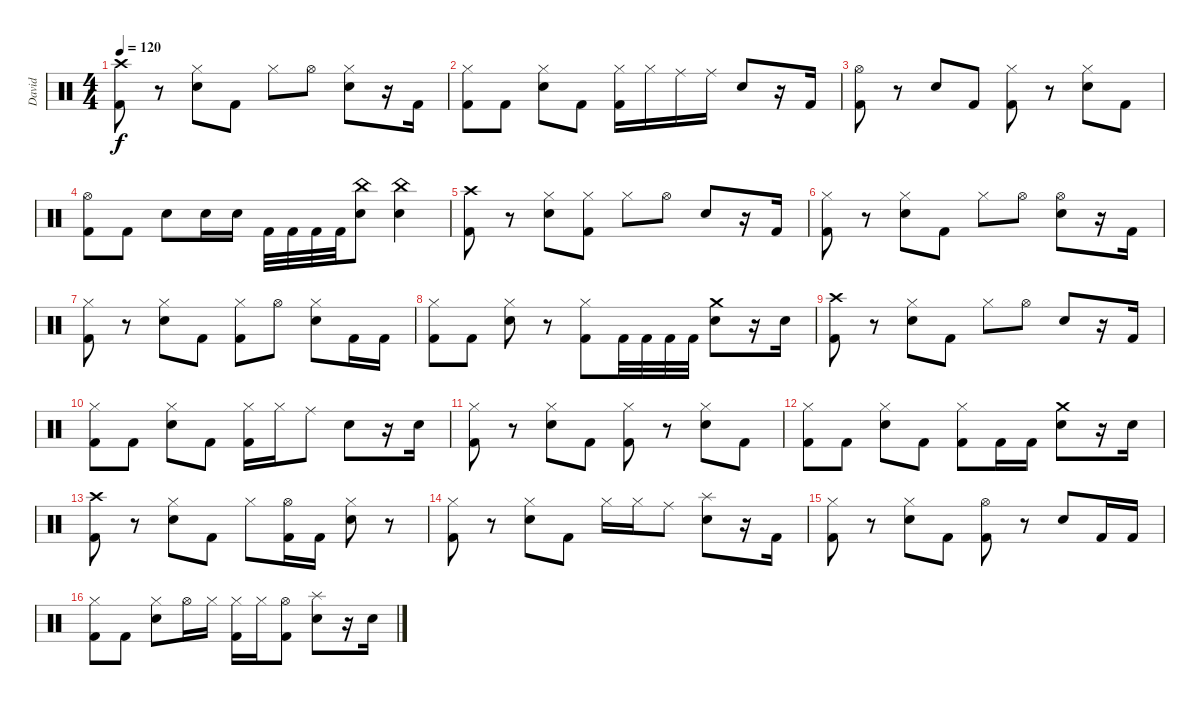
\track ("David" "David") {instrument percussion}
\staff {score}
\articulation defaults
\ts (4 4)
\tempo 120
\clef neutral
\ks c
("Crash high (hit)" "Kick (hit) 2").8{dy f} r.8 ("Hi-Hat (closed)" "Electric Snare (hit)").8 "Kick (hit) 2".8 "Hi-Hat (closed)".8 "Hi-Hat (open)".8 ("Hi-Hat (closed)" "Electric Snare (hit)").8 r.16 "Kick (hit) 2".16 |
("Hi-Hat (closed)" "Kick (hit) 2").8 "Kick (hit) 2".8 ("Hi-Hat (closed)" "Electric Snare (hit)").8 "Kick (hit) 2".8 ("Hi-Hat (closed)" "Kick (hit) 2").16 "Hi-Hat (closed)".16 "Ride (middle)".16 "Ride (middle)".16 "Electric Snare (hit)".8 r.16 "Kick (hit) 2".16 |
("Hi-Hat (open)" "Kick (hit) 2").8 r.8 "Electric Snare (hit)".8 "Kick (hit) 2".8 ("Hi-Hat (closed)" "Kick (hit) 2").8 r.8 ("Hi-Hat (closed)" "Electric Snare (hit)").8 "Kick (hit) 2".8 |
("Hi-Hat (open)" "Kick (hit) 2").8 "Kick (hit) 2".8 "Electric Snare (hit)".8 "Electric Snare (hit)".16 "Electric Snare (hit)".16 "Kick (hit) 2".32 "Kick (hit) 2".32 "Kick (hit) 2".32 "Kick (hit) 2".32 ("China (hit)" "Electric Snare (hit)").8 ("China (hit)" "Electric Snare (hit)").4 |
("Crash high (hit)" "Kick (hit) 2").8 r.8 ("Hi-Hat (closed)" "Electric Snare (hit)").8 ("Hi-Hat (closed)" "Kick (hit) 2").8 "Hi-Hat (closed)".8 "Hi-Hat (open)".8 "Electric Snare (hit)".8 r.16 "Kick (hit) 2".16 |
("Hi-Hat (closed)" "Kick (hit) 2").8 r.8 ("Hi-Hat (closed)" "Electric Snare (hit)").8 "Kick (hit) 2".8 "Hi-Hat (closed)".8 "Hi-Hat (open)".8 ("Hi-Hat (open)" "Electric Snare (hit)").8 r.16 "Kick (hit) 2".16 |
("Hi-Hat (closed)" "Kick (hit) 2").8 r.8 ("Hi-Hat (closed)" "Electric Snare (hit)").8 "Kick (hit) 2".8 ("Hi-Hat (closed)" "Kick (hit) 2").8 "Hi-Hat (open)".8 ("Hi-Hat (closed)" "Electric Snare (hit)").8 "Kick (hit) 2".16 "Kick (hit) 2".16 |
("Hi-Hat (closed)" "Kick (hit) 2").8 "Kick (hit) 2".8 ("Hi-Hat (closed)" "Electric Snare (hit)").8 r.8 ("Hi-Hat (closed)" "Kick (hit) 2").8 "Kick (hit) 2".32 "Kick (hit) 2".32 "Kick (hit) 2".32 "Kick (hit) 2".32 ("Crash medium (hit)" "Electric Snare (hit)").8 r.16 "Electric Snare (hit)".16 |
("Crash high (hit)" "Kick (hit) 2").8 r.8 ("Hi-Hat (closed)" "Electric Snare (hit)").8 "Kick (hit) 2".8 "Hi-Hat (closed)".8 "Hi-Hat (open)".8 "Electric Snare (hit)".8 r.16 "Kick (hit) 2".16 |
("Hi-Hat (closed)" "Kick (hit) 2").8 "Kick (hit) 2".8 ("Hi-Hat (closed)" "Electric Snare (hit)").8 "Kick (hit) 2".8 ("Hi-Hat (closed)" "Kick (hit) 2").16 "Hi-Hat (closed)".16 "Ride (middle)".8 "Electric Snare (hit)".8 r.16 "Electric Snare (hit)".16 |
("Hi-Hat (closed)" "Kick (hit) 2").8 r.8 ("Hi-Hat (closed)" "Electric Snare (hit)").8 "Kick (hit) 2".8 ("Hi-Hat (closed)" "Kick (hit) 2").8 r.8 ("Hi-Hat (closed)" "Electric Snare (hit)").8 "Kick (hit) 2".8 |
("Hi-Hat (closed)" "Kick (hit) 2").8 "Kick (hit) 2".8 ("Hi-Hat (closed)" "Electric Snare (hit)").8 "Kick (hit) 2".8 ("Hi-Hat (closed)" "Kick (hit) 2").8 "Kick (hit) 2".16 "Kick (hit) 2".16 ("Crash medium (hit)" "Electric Snare (hit)").8 r.16 "Electric Snare (hit)".16 |
("Crash high (hit)" "Kick (hit) 2").8 r.8 ("Hi-Hat (closed)" "Electric Snare (hit)").8 "Kick (hit) 2".8 "Hi-Hat (closed)".8 ("Hi-Hat (open)" "Kick (hit) 2").16 "Kick (hit) 2".16 ("Hi-Hat (closed)" "Electric Snare (hit)").8 r.8 |
("Hi-Hat (closed)" "Kick (hit) 2").8 r.8 ("Hi-Hat (closed)" "Electric Snare (hit)").8 "Kick (hit) 2".8 "Hi-Hat (closed)".16 "Hi-Hat (closed)".16 "Ride (middle)".8 ("Splash (hit)" "Electric Snare (hit)").8 r.16 "Kick (hit) 2".16 |
("Hi-Hat (closed)" "Kick (hit) 2").8 r.8 ("Hi-Hat (closed)" "Electric Snare (hit)").8 "Kick (hit) 2".8 ("Hi-Hat (open)" "Kick (hit) 2").8 r.8 "Electric Snare (hit)".8 "Kick (hit) 2".16 "Kick (hit) 2".16 |
("Hi-Hat (closed)" "Kick (hit) 2").8 "Kick (hit) 2".8 ("Hi-Hat (closed)" "Electric Snare (hit)").8 "Hi-Hat (open)".16 "Hi-Hat (closed)".16 ("Hi-Hat (closed)" "Kick (hit) 2").16 "Hi-Hat (closed)".16 ("Hi-Hat (open)" "Kick (hit) 2").8 ("Splash (hit)" "Electric Snare (hit)").8 r.16 "Electric Snare (hit)".16
